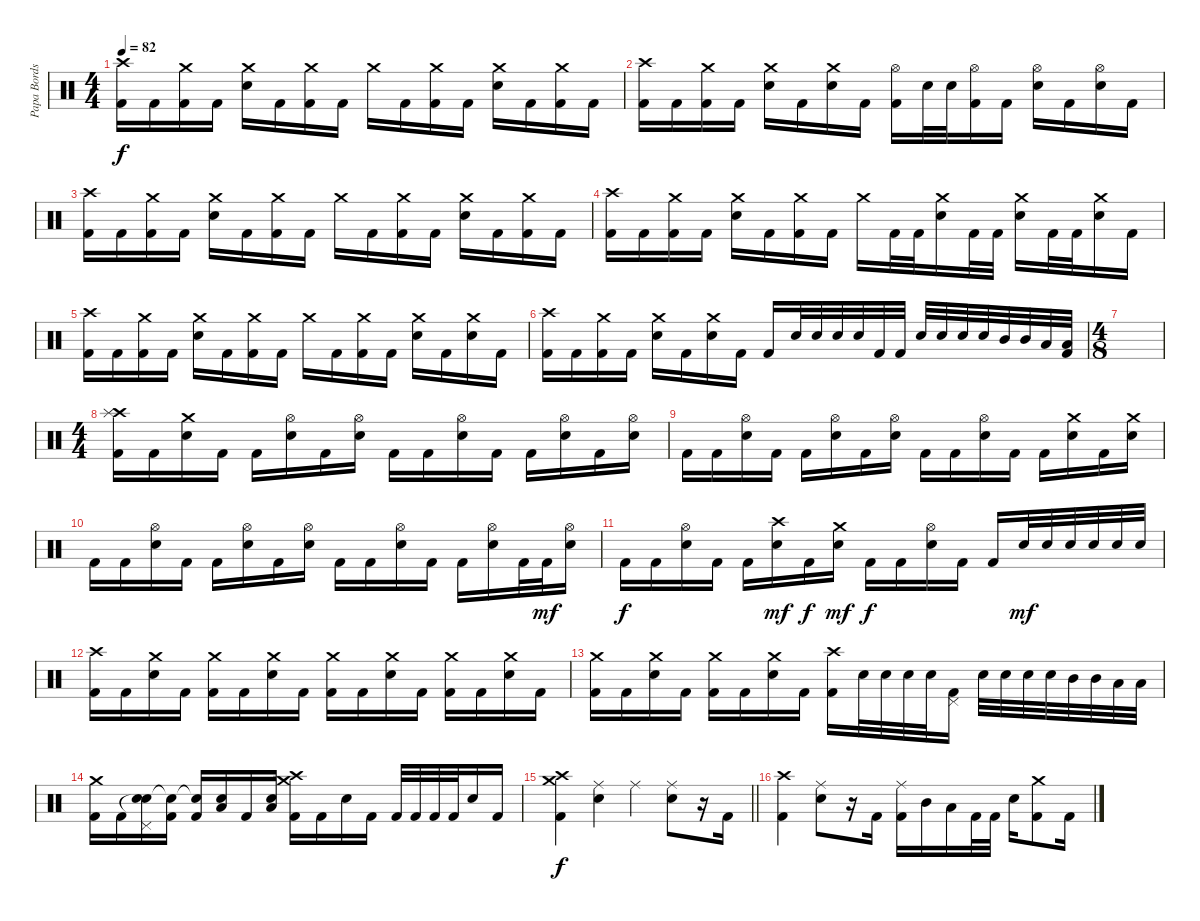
\track ("Papa Bords" "Papa Bords") {instrument percussion}
\staff {score}
\articulation defaults
\ts (4 4)
\tempo 82
\clef neutral
\ks c
("Crash high (hit)" "Kick (hit) 2").16{dy f} "Kick (hit) 2".16 ("Crash medium (hit)" "Kick (hit) 2").16 "Kick (hit) 2".16 ("Crash medium (hit)" "Electric Snare (hit)").16 "Kick (hit) 2".16 ("Crash medium (hit)" "Kick (hit) 2").16 "Kick (hit) 2".16 "Crash medium (hit)".16 "Kick (hit) 2".16 ("Crash medium (hit)" "Kick (hit) 2").16 "Kick (hit) 2".16 ("Crash medium (hit)" "Electric Snare (hit)").16 "Kick (hit) 2".16 ("Crash medium (hit)" "Kick (hit) 2").16 "Kick (hit) 2".16 |
("Crash high (hit)" "Kick (hit) 2").16 "Kick (hit) 2".16 ("Crash medium (hit)" "Kick (hit) 2").16 "Kick (hit) 2".16 ("Crash medium (hit)" "Electric Snare (hit)").16 "Kick (hit) 2".16 ("Crash medium (hit)" "Electric Snare (hit)").16 "Kick (hit) 2".16 ("Hi-Hat (open)" "Kick (hit) 2").16 "Electric Snare (hit)".32 "Electric Snare (hit)".32 ("Hi-Hat (open)" "Kick (hit) 2").16 "Kick (hit) 2".16 ("Hi-Hat (open)" "Electric Snare (hit)").16 "Kick (hit) 2".16 ("Hi-Hat (open)" "Electric Snare (hit)").16 "Kick (hit) 2".16 |
("Crash high (hit)" "Kick (hit) 2").16 "Kick (hit) 2".16 ("Crash medium (hit)" "Kick (hit) 2").16 "Kick (hit) 2".16 ("Crash medium (hit)" "Electric Snare (hit)").16 "Kick (hit) 2".16 ("Crash medium (hit)" "Kick (hit) 2").16 "Kick (hit) 2".16 "Crash medium (hit)".16 "Kick (hit) 2".16 ("Crash medium (hit)" "Kick (hit) 2").16 "Kick (hit) 2".16 ("Crash medium (hit)" "Electric Snare (hit)").16 "Kick (hit) 2".16 ("Crash medium (hit)" "Kick (hit) 2").16 "Kick (hit) 2".16 |
("Crash high (hit)" "Kick (hit) 2").16 "Kick (hit) 2".16 ("Crash medium (hit)" "Kick (hit) 2").16 "Kick (hit) 2".16 ("Crash medium (hit)" "Electric Snare (hit)").16 "Kick (hit) 2".16 ("Crash medium (hit)" "Kick (hit) 2").16 "Kick (hit) 2".16 "Crash medium (hit)".16 "Kick (hit) 2".32 "Kick (hit) 2".32 ("Crash medium (hit)" "Electric Snare (hit)").16 "Kick (hit) 2".32 "Kick (hit) 2".32 ("Crash medium (hit)" "Electric Snare (hit)").16 "Kick (hit) 2".32 "Kick (hit) 2".32 ("Crash medium (hit)" "Electric Snare (hit)").16 "Kick (hit) 2".16 |
("Crash high (hit)" "Kick (hit) 2").16 "Kick (hit) 2".16 ("Crash medium (hit)" "Kick (hit) 2").16 "Kick (hit) 2".16 ("Crash medium (hit)" "Electric Snare (hit)").16 "Kick (hit) 2".16 ("Crash medium (hit)" "Kick (hit) 2").16 "Kick (hit) 2".16 "Crash medium (hit)".16 "Kick (hit) 2".16 ("Crash medium (hit)" "Kick (hit) 2").16 "Kick (hit) 2".16 ("Crash medium (hit)" "Electric Snare (hit)").16 "Kick (hit) 2".16 ("Crash medium (hit)" "Electric Snare (hit)").16 "Kick (hit) 2".16 |
("Crash high (hit)" "Kick (hit) 2").16 "Kick (hit) 2".16 ("Crash medium (hit)" "Kick (hit) 2").16 "Kick (hit) 2".16 ("Crash medium (hit)" "Electric Snare (hit)").16 "Kick (hit) 2".16 ("Crash medium (hit)" "Electric Snare (hit)").16 "Kick (hit) 2".16 "Kick (hit) 2".16 "Electric Snare (hit)".32 "Electric Snare (hit)".32 "Electric Snare (hit)".32 "Electric Snare (hit)".32 "Kick (hit) 2".32 "Kick (hit) 2".32 "Electric Snare (hit)".32 "Electric Snare (hit)".32 "Electric Snare (hit)".32 "Electric Snare (hit)".32 "Mid Tom (hit)".32 "Mid Tom (hit)".32 "Low Floor Tom (hit)".32 ("Low Floor Tom (hit)" "Kick (hit) 2").32 |
\ts (4 8)
|
\ts (4 4)
("Crash high (hit)" "Splash (hit)" "Kick (hit) 2").16 "Kick (hit) 2".16 ("Crash medium (hit)" "Electric Snare (hit)").16 "Kick (hit) 2".16 "Kick (hit) 2".16 ("Hi-Hat (open)" "Electric Snare (hit)").16 "Kick (hit) 2".16 ("Hi-Hat (open)" "Electric Snare (hit)").16 "Kick (hit) 2".16 "Kick (hit) 2".16 ("Hi-Hat (open)" "Electric Snare (hit)").16 "Kick (hit) 2".16 "Kick (hit) 2".16 ("Hi-Hat (open)" "Electric Snare (hit)").16 "Kick (hit) 2".16 ("Hi-Hat (open)" "Electric Snare (hit)").16 |
"Kick (hit) 2".16 "Kick (hit) 2".16 ("Hi-Hat (open)" "Electric Snare (hit)").16 "Kick (hit) 2".16 "Kick (hit) 2".16 ("Hi-Hat (open)" "Electric Snare (hit)").16 "Kick (hit) 2".16 ("Hi-Hat (open)" "Electric Snare (hit)").16 "Kick (hit) 2".16 "Kick (hit) 2".16 ("Hi-Hat (open)" "Electric Snare (hit)").16 "Kick (hit) 2".16 "Kick (hit) 2".16 ("Crash medium (hit)" "Electric Snare (hit)").16 "Kick (hit) 2".16 ("Crash medium (hit)" "Electric Snare (hit)").16 |
"Kick (hit) 2".16 "Kick (hit) 2".16 ("Hi-Hat (open)" "Electric Snare (hit)").16 "Kick (hit) 2".16 "Kick (hit) 2".16 ("Hi-Hat (open)" "Electric Snare (hit)").16 "Kick (hit) 2".16 ("Hi-Hat (open)" "Electric Snare (hit)").16 "Kick (hit) 2".16 "Kick (hit) 2".16 ("Hi-Hat (open)" "Electric Snare (hit)").16 "Kick (hit) 2".16 "Kick (hit) 2".16 ("Hi-Hat (open)" "Electric Snare (hit)").16 "Kick (hit) 2".32 "Kick (hit) 2".32{dy mf} ("Hi-Hat (open)" "Electric Snare (hit)").16 |
"Kick (hit) 2".16{dy f} "Kick (hit) 2".16 ("Hi-Hat (open)" "Electric Snare (hit)").16 "Kick (hit) 2".16 "Kick (hit) 2".16 ("Crash high (hit)" "Electric Snare (hit)").16{dy mf} "Kick (hit) 2".16{dy f} ("Crash medium (hit)" "Electric Snare (hit)").16{dy mf} "Kick (hit) 2".16{dy f} "Kick (hit) 2".16 ("Hi-Hat (open)" "Electric Snare (hit)").16 "Kick (hit) 2".16 "Kick (hit) 2".16 "Electric Snare (hit)".32{dy mf} "Electric Snare (hit)".32 "Electric Snare (hit)".32 "Electric Snare (hit)".32 "Electric Snare (hit)".32 "Electric Snare (hit)".32 |
("Crash high (hit)" "Kick (hit) 2").16 "Kick (hit) 2".16 ("Crash medium (hit)" "Electric Snare (hit)").16 "Kick (hit) 2".16 ("Crash medium (hit)" "Kick (hit) 2").16 "Kick (hit) 2".16 ("Crash medium (hit)" "Electric Snare (hit)").16 "Kick (hit) 2".16 ("Crash medium (hit)" "Kick (hit) 2").16 "Kick (hit) 2".16 ("Crash medium (hit)" "Electric Snare (hit)").16 "Kick (hit) 2".16 ("Crash medium (hit)" "Kick (hit) 2").16 "Kick (hit) 2".16 ("Crash medium (hit)" "Electric Snare (hit)").16 "Kick (hit) 2".16 |
("Crash medium (hit)" "Kick (hit) 2").16 "Kick (hit) 2".16 ("Crash medium (hit)" "Electric Snare (hit)").16 "Kick (hit) 2".16 ("Crash medium (hit)" "Kick (hit) 2").16 "Kick (hit) 2".16 ("Crash medium (hit)" "Electric Snare (hit)").16 "Kick (hit) 2".16 ("Crash high (hit)" "Kick (hit) 2").16 "Electric Snare (hit)".32 "Electric Snare (hit)".32 "Electric Snare (hit)".32 "Electric Snare (hit)".32 ("Pedal Hi-Hat (hit)" "Kick (hit) 2").16 "Electric Snare (hit)".32 "Electric Snare (hit)".32 "Electric Snare (hit)".32 "Electric Snare (hit)".32 "Mid Tom (hit)".32 "Mid Tom (hit)".32 "Low Tom (hit)".32 "Low Floor Tom (hit)".32 |
("Crash medium (hit)" "Kick (hit) 2").16 "Kick (hit) 2".16 ("Snare (hit)"{t} "Pedal Hi-Hat (hit)" "Electric Snare (hit)").16 ("Snare (hit)"{t} "Kick (hit) 2").16 ("Snare (hit)"{t} "Kick (hit) 2").16 ("Low Floor Tom (hit)" "Electric Snare (hit)").16 "Kick (hit) 2".16 ("Low Floor Tom (hit)" "Electric Snare (hit)").16 ("Crash high (hit)" "Crash medium (hit)" "Kick (hit) 2").16 "Kick (hit) 2".16 "Electric Snare (hit)".16 "Kick (hit) 2".16 "Kick (hit) 2".32 "Kick (hit) 2".32 "Kick (hit) 2".32 "Kick (hit) 2".32 "Electric Snare (hit)".16 "Kick (hit) 2".16 |
\barLineRight lightlight
("Crash high (hit)" "Crash medium (hit)" "Kick (hit) 2").4{dy f} ("Ride (middle)" "Electric Snare (hit)").4 "Ride (middle)".4 ("Ride (middle)" "Electric Snare (hit)").8 r.16 "Kick (hit) 2".16 |
("Crash high (hit)" "Kick (hit) 2").4 ("Ride (middle)" "Electric Snare (hit)").8 r.16 "Kick (hit) 2".16 ("Ride (middle)" "Kick (hit) 2").16 "Mid Tom (hit)".16 "Low Floor Tom (hit)".16 "Kick (hit) 2".32 "Kick (hit) 2".32 "Electric Snare (hit)".16 ("Crash medium (hit)" "Kick (hit) 2").8 "Kick (hit) 2".16
